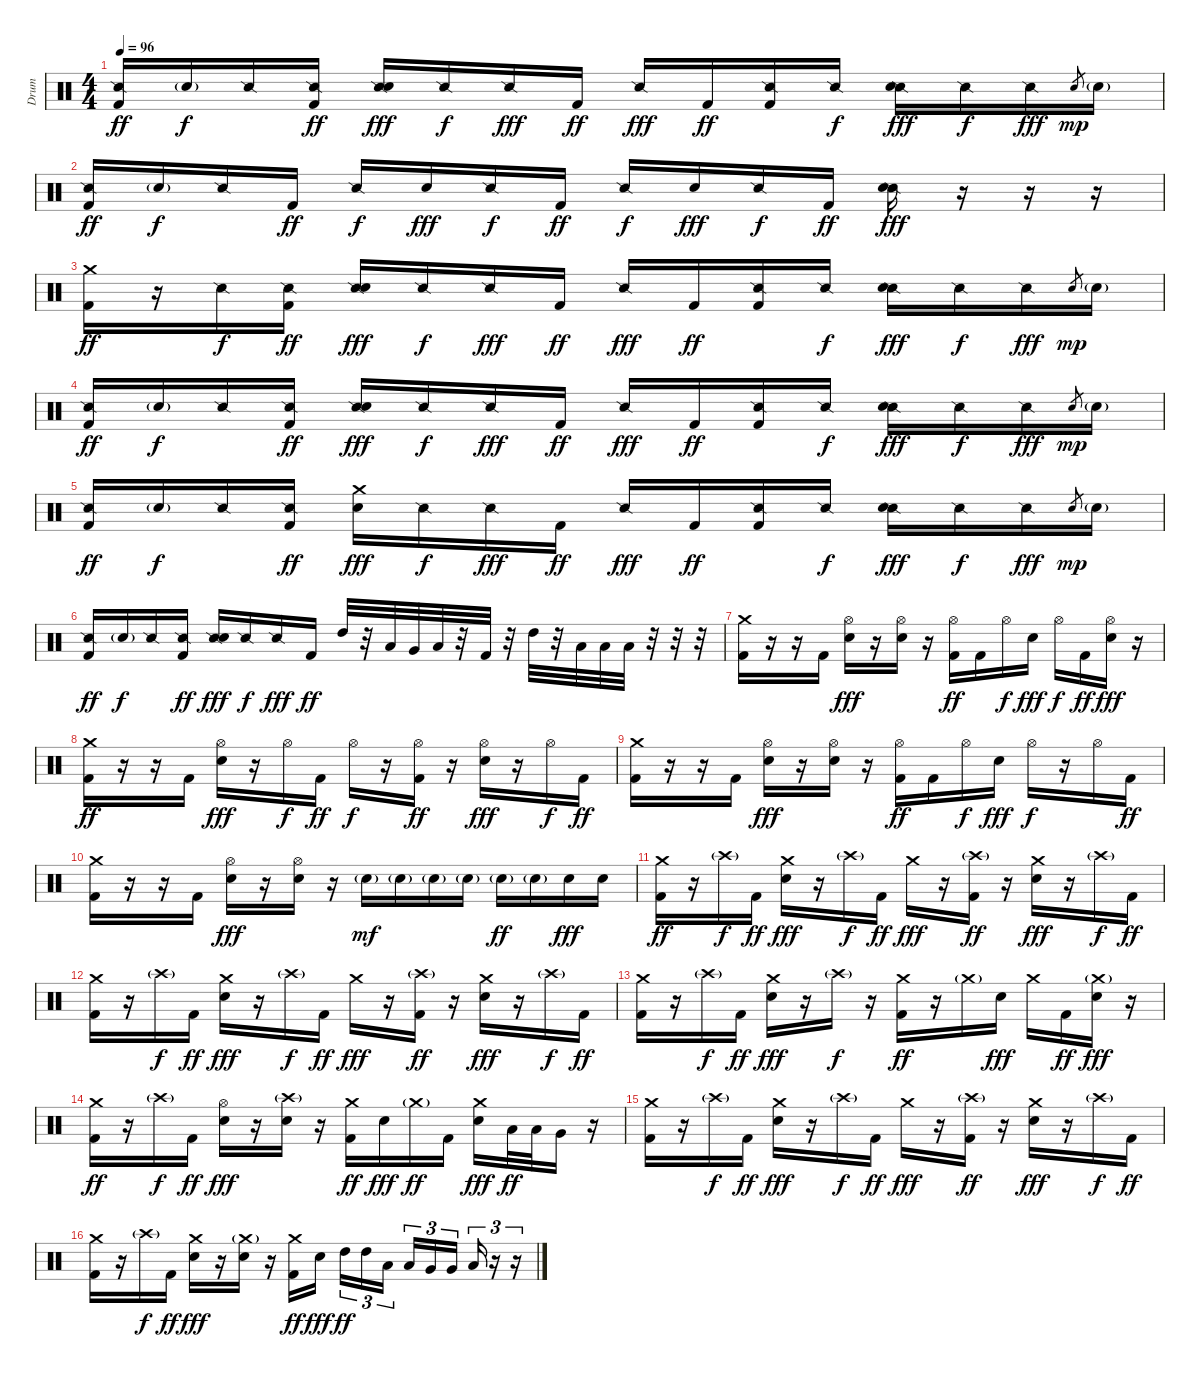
\track ("Drum" "Drum") {instrument percussion}
\staff {score}
\articulation defaults
\ts (4 4)
\tempo 96
\clef neutral
\ks c
("Snare (side stick) 2" "Kick (hit) 2").16{dy ff} "Snare (hit) 2"{g}.16{dy f} "Snare (side stick) 2".16 ("Snare (side stick) 2" "Kick (hit) 2").16{dy ff} ("Snare (side stick) 2" "Snare (hit) 2").16{dy fff} "Snare (side stick) 2".16{dy f} "Snare (side stick) 2".16{dy fff} "Kick (hit) 2".16{dy ff} "Snare (side stick) 2".16{dy fff} "Kick (hit) 2".16{dy ff} ("Snare (side stick) 2" "Kick (hit) 2").16 "Snare (side stick) 2".16{dy f} ("Snare (side stick) 2" "Snare (hit) 2").16{dy fff} "Snare (side stick) 2".16{dy f} "Snare (side stick) 2".16{dy fff} "Snare (hit) 2".8{gr dy mp} "Snare (hit) 2"{g}.16 |
("Snare (side stick) 2" "Kick (hit) 2").16{dy ff} "Snare (hit) 2"{g}.16{dy f} "Snare (side stick) 2".16 "Kick (hit) 2".16{dy ff} "Snare (side stick) 2".16{dy f} "Snare (hit) 2".16{dy fff} "Snare (side stick) 2".16{dy f} "Kick (hit) 2".16{dy ff} "Snare (side stick) 2".16{dy f} "Snare (hit) 2".16{dy fff} "Snare (side stick) 2".16{dy f} "Kick (hit) 2".16{dy ff} ("Snare (side stick) 2" "Snare (hit) 2").16{dy fff} r.16 r.16 r.16 |
("Crash medium (hit)" "Kick (hit) 2").16{dy ff} r.16 "Snare (side stick) 2".16{dy f} ("Snare (side stick) 2" "Kick (hit) 2").16{dy ff} ("Snare (side stick) 2" "Snare (hit) 2").16{dy fff} "Snare (side stick) 2".16{dy f} "Snare (side stick) 2".16{dy fff} "Kick (hit) 2".16{dy ff} "Snare (side stick) 2".16{dy fff} "Kick (hit) 2".16{dy ff} ("Snare (side stick) 2" "Kick (hit) 2").16 "Snare (side stick) 2".16{dy f} ("Snare (side stick) 2" "Snare (hit) 2").16{dy fff} "Snare (side stick) 2".16{dy f} "Snare (side stick) 2".16{dy fff} "Snare (hit) 2".8{gr dy mp} "Snare (hit) 2"{g}.16 |
("Snare (side stick) 2" "Kick (hit) 2").16{dy ff} "Snare (hit) 2"{g}.16{dy f} "Snare (side stick) 2".16 ("Snare (side stick) 2" "Kick (hit) 2").16{dy ff} ("Snare (side stick) 2" "Snare (hit) 2").16{dy fff} "Snare (side stick) 2".16{dy f} "Snare (side stick) 2".16{dy fff} "Kick (hit) 2".16{dy ff} "Snare (side stick) 2".16{dy fff} "Kick (hit) 2".16{dy ff} ("Snare (side stick) 2" "Kick (hit) 2").16 "Snare (side stick) 2".16{dy f} ("Snare (side stick) 2" "Snare (hit) 2").16{dy fff} "Snare (side stick) 2".16{dy f} "Snare (side stick) 2".16{dy fff} "Snare (hit) 2".8{gr dy mp} "Snare (hit) 2"{g}.16 |
("Snare (side stick) 2" "Kick (hit) 2").16{dy ff} "Snare (hit) 2"{g}.16{dy f} "Snare (side stick) 2".16 ("Snare (side stick) 2" "Kick (hit) 2").16{dy ff} ("Crash medium (hit)" "Snare (hit) 2").16{dy fff} "Snare (side stick) 2".16{dy f} "Snare (side stick) 2".16{dy fff} "Kick (hit) 2".16{dy ff} "Snare (side stick) 2".16{dy fff} "Kick (hit) 2".16{dy ff} ("Snare (side stick) 2" "Kick (hit) 2").16 "Snare (side stick) 2".16{dy f} ("Snare (side stick) 2" "Snare (hit) 2").16{dy fff} "Snare (side stick) 2".16{dy f} "Snare (side stick) 2".16{dy fff} "Snare (hit) 2".8{gr dy mp} "Snare (hit) 2"{g}.16 |
("Snare (side stick) 2" "Kick (hit) 2").16{dy ff} "Snare (hit) 2"{g}.16{dy f} "Snare (side stick) 2".16 ("Snare (side stick) 2" "Kick (hit) 2").16{dy ff} ("Snare (side stick) 2" "Snare (hit) 2").16{dy fff} "Snare (side stick) 2".16{dy f} "Snare (side stick) 2".16{dy fff} "Kick (hit) 2".16{dy ff} "High Tom (hit)".32 r.32 "Low Tom (hit)".32 "Very Low Tom (hit)".32 "Low Floor Tom (hit)".32 r.32 "Kick (hit) 2".32 r.32 "High Tom (hit)".32 r.32 "Low Tom (hit)".32 "Low Tom (hit)".32 "Low Floor Tom (hit)".32 r.32 r.32 r.32 |
("Crash medium (hit)" "Kick (hit) 2").16 r.16 r.16 "Kick (hit) 2".16 ("Hi-Hat (open)" "Snare (hit) 2").16{dy fff} r.16 ("Hi-Hat (open)" "Snare (hit) 2").16 r.16 ("Hi-Hat (open)" "Kick (hit) 2").16{dy ff} "Kick (hit) 2".16 "Hi-Hat (open)".16{dy f} "Snare (hit) 2".16{dy fff} "Hi-Hat (open)".16{dy f} "Kick (hit) 2".16{dy ff} ("Hi-Hat (open)" "Snare (hit) 2").16{dy fff} r.16 |
("Crash medium (hit)" "Kick (hit) 2").16{dy ff} r.16 r.16 "Kick (hit) 2".16 ("Hi-Hat (open)" "Snare (hit) 2").16{dy fff} r.16 "Hi-Hat (open)".16{dy f} "Kick (hit) 2".16{dy ff} "Hi-Hat (open)".16{dy f} r.16 ("Hi-Hat (open)" "Kick (hit) 2").16{dy ff} r.16 ("Hi-Hat (open)" "Snare (hit) 2").16{dy fff} r.16 "Hi-Hat (open)".16{dy f} "Kick (hit) 2".16{dy ff} |
("Crash medium (hit)" "Kick (hit) 2").16 r.16 r.16 "Kick (hit) 2".16 ("Hi-Hat (open)" "Snare (hit) 2").16{dy fff} r.16 ("Hi-Hat (open)" "Snare (hit) 2").16 r.16 ("Hi-Hat (open)" "Kick (hit) 2").16{dy ff} "Kick (hit) 2".16 "Hi-Hat (open)".16{dy f} "Snare (hit) 2".16{dy fff} "Hi-Hat (open)".16{dy f} r.16 "Hi-Hat (open)".16 "Kick (hit) 2".16{dy ff} |
("Crash medium (hit)" "Kick (hit) 2").16 r.16 r.16 "Kick (hit) 2".16 ("Hi-Hat (open)" "Snare (hit) 2").16{dy fff} r.16 ("Hi-Hat (open)" "Snare (hit) 2").16 r.16 "Snare (hit) 2"{g}.16{dy mf} "Snare (hit) 2"{g}.16 "Snare (hit) 2"{g}.16 "Snare (hit) 2"{g}.16 "Snare (hit) 2"{g}.16{dy ff} "Snare (hit) 2"{g}.16 "Snare (hit) 2".16{dy fff} "Snare (hit) 2".16 |
("Crash medium (hit)" "Kick (hit) 2").16{dy ff} r.16 "Crash high (hit)"{g}.16{dy f} "Kick (hit) 2".16{dy ff} ("Crash medium (hit)" "Snare (hit) 2").16{dy fff} r.16 "Crash high (hit)"{g}.16{dy f} "Kick (hit) 2".16{dy ff} "Crash medium (hit)".16{dy fff} r.16 ("Crash high (hit)"{g} "Kick (hit) 2").16{dy ff} r.16 ("Crash medium (hit)" "Snare (hit) 2").16{dy fff} r.16 "Crash high (hit)"{g}.16{dy f} "Kick (hit) 2".16{dy ff} |
("Crash medium (hit)" "Kick (hit) 2").16 r.16 "Crash high (hit)"{g}.16{dy f} "Kick (hit) 2".16{dy ff} ("Crash medium (hit)" "Snare (hit) 2").16{dy fff} r.16 "Crash high (hit)"{g}.16{dy f} "Kick (hit) 2".16{dy ff} "Crash medium (hit)".16{dy fff} r.16 ("Crash high (hit)"{g} "Kick (hit) 2").16{dy ff} r.16 ("Crash medium (hit)" "Snare (hit) 2").16{dy fff} r.16 "Crash high (hit)"{g}.16{dy f} "Kick (hit) 2".16{dy ff} |
("Crash medium (hit)" "Kick (hit) 2").16 r.16 "Crash high (hit)"{g}.16{dy f} "Kick (hit) 2".16{dy ff} ("Crash medium (hit)" "Snare (hit) 2").16{dy fff} r.16 "Crash high (hit)"{g}.16{dy f} r.16 ("Crash medium (hit)" "Kick (hit) 2").16{dy ff} r.16 "Crash medium (hit)"{g}.16 "Snare (hit) 2".16{dy fff} "Crash medium (hit)".16 "Kick (hit) 2".16{dy ff} ("Crash medium (hit)"{g} "Snare (hit) 2").16{dy fff} r.16 |
("Crash medium (hit)" "Kick (hit) 2").16{dy ff} r.16 "Crash high (hit)"{g}.16{dy f} "Kick (hit) 2".16{dy ff} ("Hi-Hat (open)" "Snare (hit) 2").16{dy fff} r.16 ("Crash high (hit)"{g} "Snare (hit) 2").16 r.16 ("Crash medium (hit)" "Kick (hit) 2").16{dy ff} "Snare (hit) 2".16{dy fff} "Crash medium (hit)"{g}.16{dy ff} "Kick (hit) 2".16 ("Crash medium (hit)" "Snare (hit) 2").16{dy fff} "Low Tom (hit)".32{dy ff} "Low Tom (hit)".32 "Very Low Tom (hit)".16 r.16 |
("Crash medium (hit)" "Kick (hit) 2").16 r.16 "Crash high (hit)"{g}.16{dy f} "Kick (hit) 2".16{dy ff} ("Crash medium (hit)" "Snare (hit) 2").16{dy fff} r.16 "Crash high (hit)"{g}.16{dy f} "Kick (hit) 2".16{dy ff} "Crash medium (hit)".16{dy fff} r.16 ("Crash high (hit)"{g} "Kick (hit) 2").16{dy ff} r.16 ("Crash medium (hit)" "Snare (hit) 2").16{dy fff} r.16 "Crash high (hit)"{g}.16{dy f} "Kick (hit) 2".16{dy ff} |
("Crash medium (hit)" "Kick (hit) 2").16 r.16 "Crash high (hit)"{g}.16{dy f} "Kick (hit) 2".16{dy ff} ("Crash medium (hit)" "Snare (hit) 2").16{dy fff} r.16 ("Crash medium (hit)"{g} "Snare (hit) 2").16 r.16 ("Crash medium (hit)" "Kick (hit) 2").16{dy ff} "Snare (hit) 2".16{dy fff} "High Tom (hit)".16{tu (3 2) dy ff} "High Tom (hit)".16{tu (3 2)} "Low Tom (hit)".16{tu (3 2)} "Low Tom (hit)".16{tu (3 2)} "Very Low Tom (hit)".16{tu (3 2)} "Very Low Tom (hit)".16{tu (3 2)} "Low Floor Tom (hit)".16{tu (3 2)} r.16{tu (3 2)} r.16{tu (3 2)}
